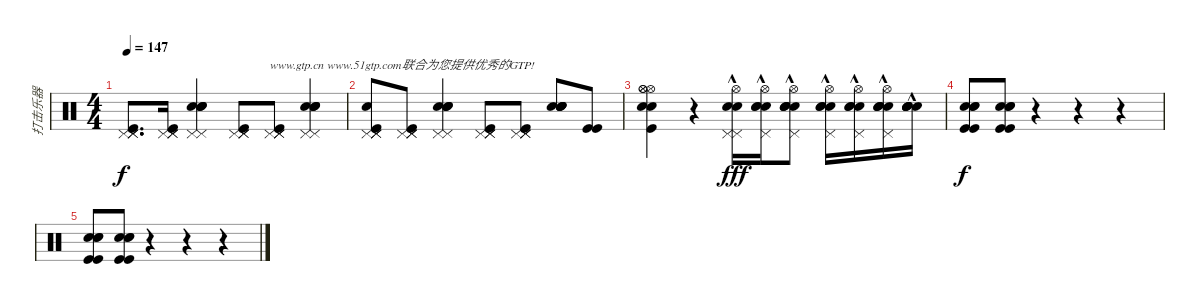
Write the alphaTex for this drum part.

\track ("打击乐器" "打击乐器") {instrument percussion}
\staff {score}
\articulation defaults
\ts (4 4)
\tempo 147
\clef neutral
\ks c
("Pedal Hi-Hat (hit)" "Pedal Hi-Hat (hit)" "Pedal Hi-Hat (hit)" "Pedal Hi-Hat (hit)" "Kick (hit)").8{d dy f} ("Pedal Hi-Hat (hit)" "Pedal Hi-Hat (hit)" "Pedal Hi-Hat (hit)" "Pedal Hi-Hat (hit)" "Kick (hit)").16 ("Electric Snare (hit)" "Electric Snare (hit)" "Electric Snare (hit)" "Electric Snare (hit)" "Pedal Hi-Hat (hit)" "Pedal Hi-Hat (hit)").4 ("Pedal Hi-Hat (hit)" "Pedal Hi-Hat (hit)" "Pedal Hi-Hat (hit)" "Pedal Hi-Hat (hit)" "Kick (hit)").8 ("Pedal Hi-Hat (hit)" "Pedal Hi-Hat (hit)" "Pedal Hi-Hat (hit)" "Pedal Hi-Hat (hit)" "Kick (hit)").8{txt "www.gtp.cn www.51gtp.com联合为您提供优秀的GTP!"} ("Electric Snare (hit)" "Electric Snare (hit)" "Electric Snare (hit)" "Electric Snare (hit)" "Pedal Hi-Hat (hit)" "Pedal Hi-Hat (hit)").4 |
("Pedal Hi-Hat (hit)" "Pedal Hi-Hat (hit)" "Snare (hit)" "Pedal Hi-Hat (hit)" "Pedal Hi-Hat (hit)" "Kick (hit)").8 ("Pedal Hi-Hat (hit)" "Pedal Hi-Hat (hit)" "Pedal Hi-Hat (hit)" "Pedal Hi-Hat (hit)" "Kick (hit)").8 ("Electric Snare (hit)" "Electric Snare (hit)" "Electric Snare (hit)" "Electric Snare (hit)" "Pedal Hi-Hat (hit)" "Pedal Hi-Hat (hit)").4 ("Pedal Hi-Hat (hit)" "Pedal Hi-Hat (hit)" "Pedal Hi-Hat (hit)" "Pedal Hi-Hat (hit)" "Kick (hit)").8 ("Pedal Hi-Hat (hit)" "Pedal Hi-Hat (hit)" "Pedal Hi-Hat (hit)" "Pedal Hi-Hat (hit)" "Kick (hit)").8 ("Electric Snare (hit)" "Electric Snare (hit)" "Electric Snare (hit)" "Electric Snare (hit)" "Electric Snare (hit)").8 ("Kick (hit)" "Kick (hit)").8 |
("Hi-Hat (open)" "Hi-Hat (open)" "Hi-Hat (open)" "Electric Snare (hit)" "Electric Snare (hit)" "Kick (hit)").4 r.4 ("Pedal Hi-Hat (hit)" "Electric Snare (hit)" "Hi-Hat (open)" "Electric Snare (hit)" "Pedal Hi-Hat (hit)"{hac}).16{dy fff} ("Pedal Hi-Hat (hit)" "Electric Snare (hit)" "Hi-Hat (open)" "Electric Snare (hit)" "Electric Snare (hit)"{hac}).16 ("Pedal Hi-Hat (hit)" "Electric Snare (hit)" "Hi-Hat (open)" "Electric Snare (hit)" "Electric Snare (hit)"{hac} "Electric Snare (hit)").8 ("Pedal Hi-Hat (hit)" "Electric Snare (hit)" "Hi-Hat (open)" "Electric Snare (hit)" "Electric Snare (hit)"{hac}).16 ("Pedal Hi-Hat (hit)" "Electric Snare (hit)" "Hi-Hat (open)" "Electric Snare (hit)" "Electric Snare (hit)"{hac}).16 ("Pedal Hi-Hat (hit)" "Electric Snare (hit)" "Hi-Hat (open)" "Electric Snare (hit)" "Electric Snare (hit)"{hac} "Electric Snare (hit)").16 ("Electric Snare (hit)" "Electric Snare (hit)" "Electric Snare (hit)" "Electric Snare (hit)" "Electric Snare (hit)"{hac}).16 |
("Electric Snare (hit)" "Electric Snare (hit)" "Electric Snare (hit)" "Kick (hit)" "Kick (hit)").8{dy f} ("Electric Snare (hit)" "Electric Snare (hit)" "Electric Snare (hit)" "Kick (hit)" "Kick (hit)").8 r.4 r.4 r.4 |
("Electric Snare (hit)" "Electric Snare (hit)" "Electric Snare (hit)" "Kick (hit)" "Kick (hit)").8 ("Electric Snare (hit)" "Electric Snare (hit)" "Electric Snare (hit)" "Kick (hit)" "Kick (hit)").8 r.4 r.4 r.4
